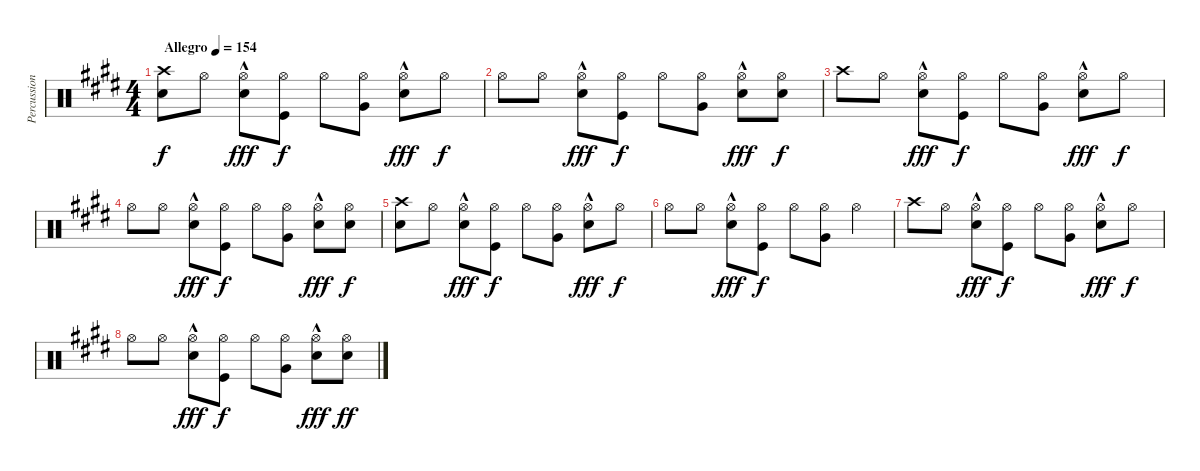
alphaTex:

\track ("Percussion (Derek Grant)" "Percussion") {instrument percussion}
\staff {score}
\articulation defaults
\ts (4 4)
\tempo (154 "Allegro")
\clef neutral
\ks c#minor
("Crash high (hit)" "Electric Snare (hit)").8{dy f} "Hi-Hat (open)".8 ("Hi-Hat (open)" "Snare (hit) 2"{hac}).8{dy fff} ("Hi-Hat (open)" "Kick (hit)").8{dy f} "Hi-Hat (open)".8 ("Hi-Hat (open)" "Very Low Tom (hit)").8 ("Hi-Hat (open)" "Snare (hit) 2"{hac}).8{dy fff} "Hi-Hat (open)".8{dy f} |
"Hi-Hat (open)".8 "Hi-Hat (open)".8 ("Hi-Hat (open)" "Snare (hit) 2"{hac}).8{dy fff} ("Hi-Hat (open)" "Kick (hit)").8{dy f} "Hi-Hat (open)".8 ("Hi-Hat (open)" "Very Low Tom (hit)").8 ("Hi-Hat (open)" "Snare (hit) 2"{hac}).8{dy fff} ("Hi-Hat (open)" "Electric Snare (hit)").8{dy f} |
"Crash high (hit)".8 "Hi-Hat (open)".8 ("Hi-Hat (open)" "Snare (hit) 2"{hac}).8{dy fff} ("Hi-Hat (open)" "Kick (hit)").8{dy f} "Hi-Hat (open)".8 ("Hi-Hat (open)" "Very Low Tom (hit)").8 ("Hi-Hat (open)" "Snare (hit) 2"{hac}).8{dy fff} "Hi-Hat (open)".8{dy f} |
"Hi-Hat (open)".8 "Hi-Hat (open)".8 ("Hi-Hat (open)" "Snare (hit) 2"{hac}).8{dy fff} ("Hi-Hat (open)" "Kick (hit)").8{dy f} "Hi-Hat (open)".8 ("Hi-Hat (open)" "Very Low Tom (hit)").8 ("Hi-Hat (open)" "Snare (hit) 2"{hac}).8{dy fff} ("Hi-Hat (open)" "Electric Snare (hit)").8{dy f} |
("Crash high (hit)" "Electric Snare (hit)").8 "Hi-Hat (open)".8 ("Hi-Hat (open)" "Snare (hit) 2"{hac}).8{dy fff} ("Hi-Hat (open)" "Kick (hit)").8{dy f} "Hi-Hat (open)".8 ("Hi-Hat (open)" "Very Low Tom (hit)").8 ("Hi-Hat (open)" "Snare (hit) 2"{hac}).8{dy fff} "Hi-Hat (open)".8{dy f} |
"Hi-Hat (open)".8 "Hi-Hat (open)".8 ("Hi-Hat (open)" "Snare (hit) 2"{hac}).8{dy fff} ("Hi-Hat (open)" "Kick (hit)").8{dy f} "Hi-Hat (open)".8 ("Hi-Hat (open)" "Very Low Tom (hit)").8 "Hi-Hat (open)".4 |
"Crash high (hit)".8 "Hi-Hat (open)".8 ("Hi-Hat (open)" "Snare (hit) 2"{hac}).8{dy fff} ("Hi-Hat (open)" "Kick (hit)").8{dy f} "Hi-Hat (open)".8 ("Hi-Hat (open)" "Very Low Tom (hit)").8 ("Hi-Hat (open)" "Snare (hit) 2"{hac}).8{dy fff} "Hi-Hat (open)".8{dy f} |
"Hi-Hat (open)".8 "Hi-Hat (open)".8 ("Hi-Hat (open)" "Snare (hit) 2"{hac}).8{dy fff} ("Hi-Hat (open)" "Kick (hit)").8{dy f} "Hi-Hat (open)".8 ("Hi-Hat (open)" "Very Low Tom (hit)").8 ("Hi-Hat (open)" "Snare (hit) 2"{hac}).8{dy fff} ("Hi-Hat (open)" "Electric Snare (hit)").8{dy ff}
